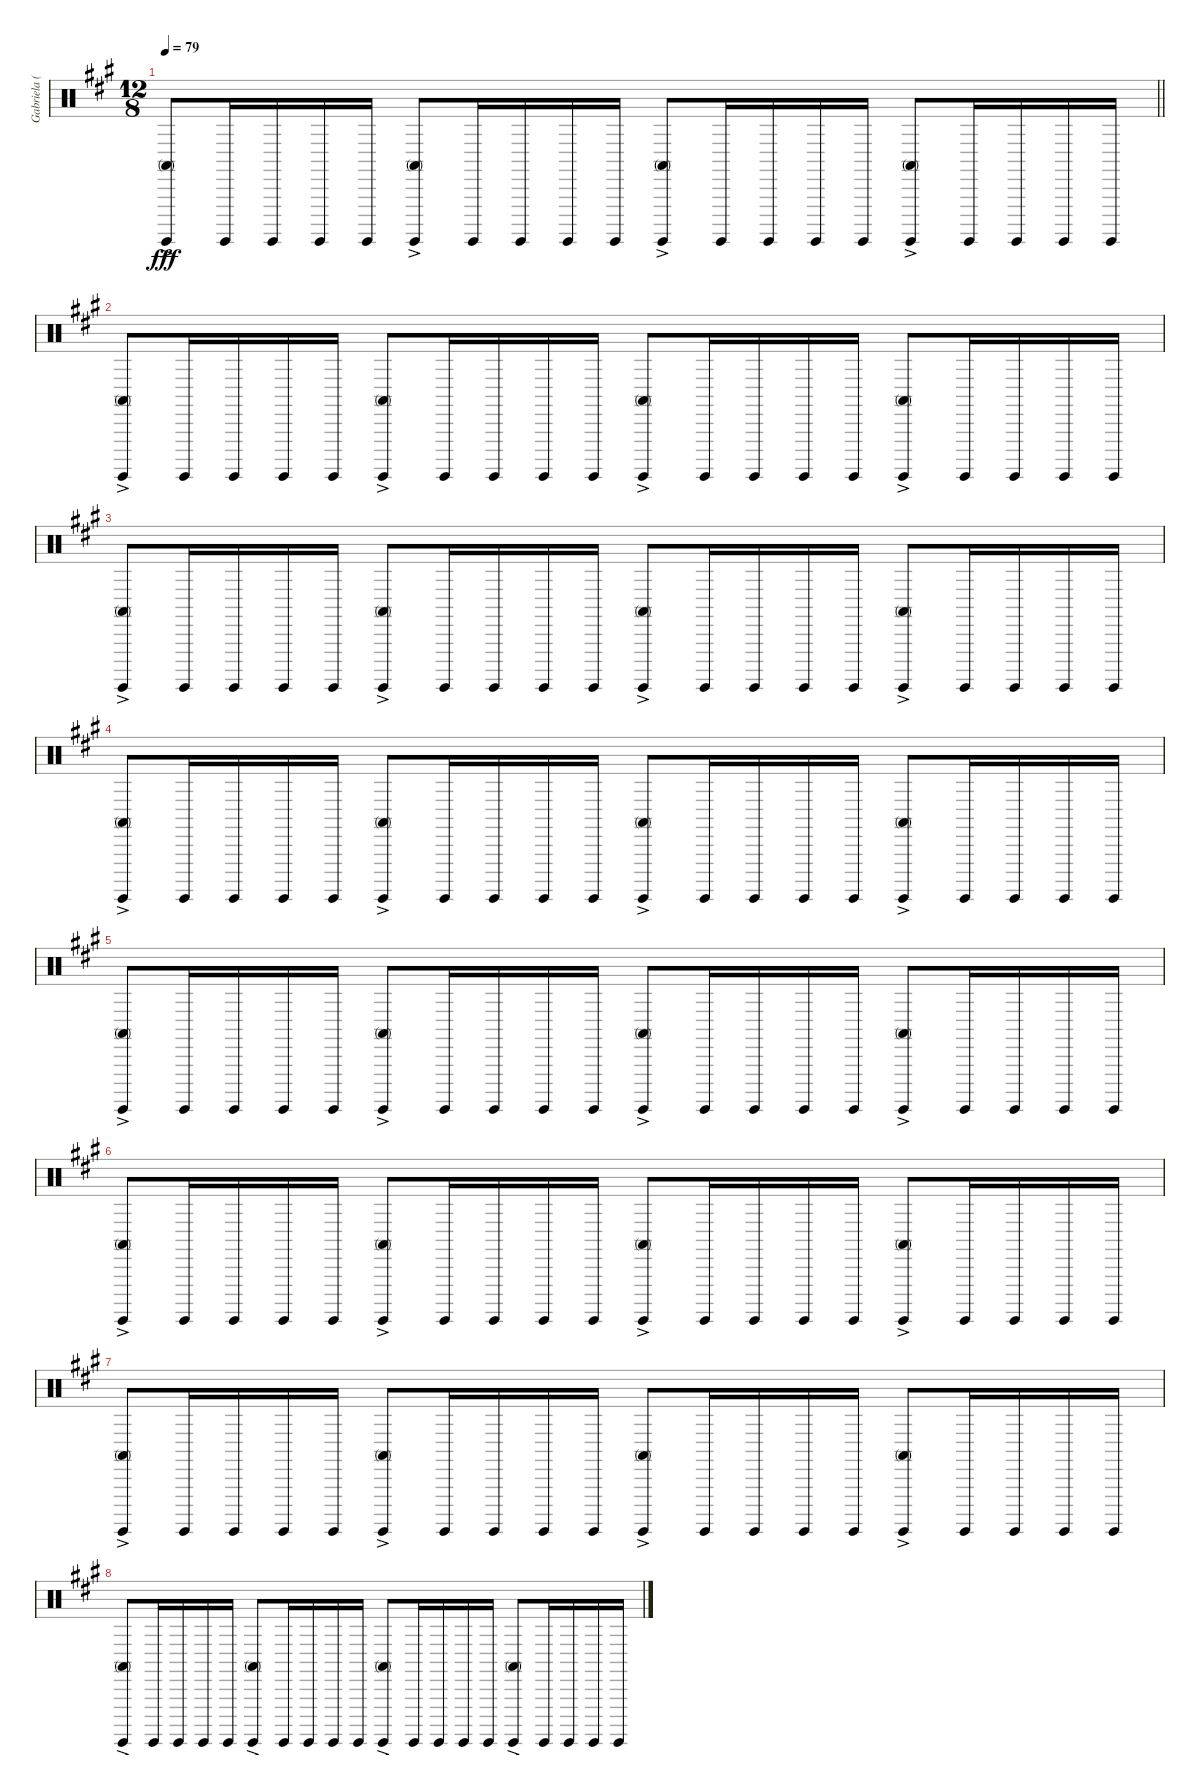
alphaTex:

\track ("Gabriela (Percussion)" "Gabriela (") {instrument percussion}
\staff {score}
\articulation defaults
\ts (12 8)
\tempo 79
\clef neutral
\barLineRight lightlight
\ks f#minor
("Conga high (mute)" "Surdo (hit)"{ac}).8{dy fff} "Surdo (hit)".16 "Surdo (hit)".16 "Surdo (hit)".16 "Surdo (hit)".16 ("Conga high (mute)" "Surdo (hit)"{ac}).8 "Surdo (hit)".16 "Surdo (hit)".16 "Surdo (hit)".16 "Surdo (hit)".16 ("Conga high (mute)" "Surdo (hit)"{ac}).8 "Surdo (hit)".16 "Surdo (hit)".16 "Surdo (hit)".16 "Surdo (hit)".16 ("Conga high (mute)" "Surdo (hit)"{ac}).8 "Surdo (hit)".16 "Surdo (hit)".16 "Surdo (hit)".16 "Surdo (hit)".16 |
("Conga high (mute)" "Surdo (hit)"{ac}).8 "Surdo (hit)".16 "Surdo (hit)".16 "Surdo (hit)".16 "Surdo (hit)".16 ("Conga high (mute)" "Surdo (hit)"{ac}).8 "Surdo (hit)".16 "Surdo (hit)".16 "Surdo (hit)".16 "Surdo (hit)".16 ("Conga high (mute)" "Surdo (hit)"{ac}).8 "Surdo (hit)".16 "Surdo (hit)".16 "Surdo (hit)".16 "Surdo (hit)".16 ("Conga high (mute)" "Surdo (hit)"{ac}).8 "Surdo (hit)".16 "Surdo (hit)".16 "Surdo (hit)".16 "Surdo (hit)".16 |
("Conga high (mute)" "Surdo (hit)"{ac}).8 "Surdo (hit)".16 "Surdo (hit)".16 "Surdo (hit)".16 "Surdo (hit)".16 ("Conga high (mute)" "Surdo (hit)"{ac}).8 "Surdo (hit)".16 "Surdo (hit)".16 "Surdo (hit)".16 "Surdo (hit)".16 ("Conga high (mute)" "Surdo (hit)"{ac}).8 "Surdo (hit)".16 "Surdo (hit)".16 "Surdo (hit)".16 "Surdo (hit)".16 ("Conga high (mute)" "Surdo (hit)"{ac}).8 "Surdo (hit)".16 "Surdo (hit)".16 "Surdo (hit)".16 "Surdo (hit)".16 |
("Conga high (mute)" "Surdo (hit)"{ac}).8 "Surdo (hit)".16 "Surdo (hit)".16 "Surdo (hit)".16 "Surdo (hit)".16 ("Conga high (mute)" "Surdo (hit)"{ac}).8 "Surdo (hit)".16 "Surdo (hit)".16 "Surdo (hit)".16 "Surdo (hit)".16 ("Conga high (mute)" "Surdo (hit)"{ac}).8 "Surdo (hit)".16 "Surdo (hit)".16 "Surdo (hit)".16 "Surdo (hit)".16 ("Conga high (mute)" "Surdo (hit)"{ac}).8 "Surdo (hit)".16 "Surdo (hit)".16 "Surdo (hit)".16 "Surdo (hit)".16 |
("Conga high (mute)" "Surdo (hit)"{ac}).8 "Surdo (hit)".16 "Surdo (hit)".16 "Surdo (hit)".16 "Surdo (hit)".16 ("Conga high (mute)" "Surdo (hit)"{ac}).8 "Surdo (hit)".16 "Surdo (hit)".16 "Surdo (hit)".16 "Surdo (hit)".16 ("Conga high (mute)" "Surdo (hit)"{ac}).8 "Surdo (hit)".16 "Surdo (hit)".16 "Surdo (hit)".16 "Surdo (hit)".16 ("Conga high (mute)" "Surdo (hit)"{ac}).8 "Surdo (hit)".16 "Surdo (hit)".16 "Surdo (hit)".16 "Surdo (hit)".16 |
("Conga high (mute)" "Surdo (hit)"{ac}).8 "Surdo (hit)".16 "Surdo (hit)".16 "Surdo (hit)".16 "Surdo (hit)".16 ("Conga high (mute)" "Surdo (hit)"{ac}).8 "Surdo (hit)".16 "Surdo (hit)".16 "Surdo (hit)".16 "Surdo (hit)".16 ("Conga high (mute)" "Surdo (hit)"{ac}).8 "Surdo (hit)".16 "Surdo (hit)".16 "Surdo (hit)".16 "Surdo (hit)".16 ("Conga high (mute)" "Surdo (hit)"{ac}).8 "Surdo (hit)".16 "Surdo (hit)".16 "Surdo (hit)".16 "Surdo (hit)".16 |
("Conga high (mute)" "Surdo (hit)"{ac}).8 "Surdo (hit)".16 "Surdo (hit)".16 "Surdo (hit)".16 "Surdo (hit)".16 ("Conga high (mute)" "Surdo (hit)"{ac}).8 "Surdo (hit)".16 "Surdo (hit)".16 "Surdo (hit)".16 "Surdo (hit)".16 ("Conga high (mute)" "Surdo (hit)"{ac}).8 "Surdo (hit)".16 "Surdo (hit)".16 "Surdo (hit)".16 "Surdo (hit)".16 ("Conga high (mute)" "Surdo (hit)"{ac}).8 "Surdo (hit)".16 "Surdo (hit)".16 "Surdo (hit)".16 "Surdo (hit)".16 |
("Conga high (mute)" "Surdo (hit)"{ac}).8 "Surdo (hit)".16 "Surdo (hit)".16 "Surdo (hit)".16 "Surdo (hit)".16 ("Conga high (mute)" "Surdo (hit)"{ac}).8 "Surdo (hit)".16 "Surdo (hit)".16 "Surdo (hit)".16 "Surdo (hit)".16 ("Conga high (mute)" "Surdo (hit)"{ac}).8 "Surdo (hit)".16 "Surdo (hit)".16 "Surdo (hit)".16 "Surdo (hit)".16 ("Conga high (mute)" "Surdo (hit)"{ac}).8 "Surdo (hit)".16 "Surdo (hit)".16 "Surdo (hit)".16 "Surdo (hit)".16
